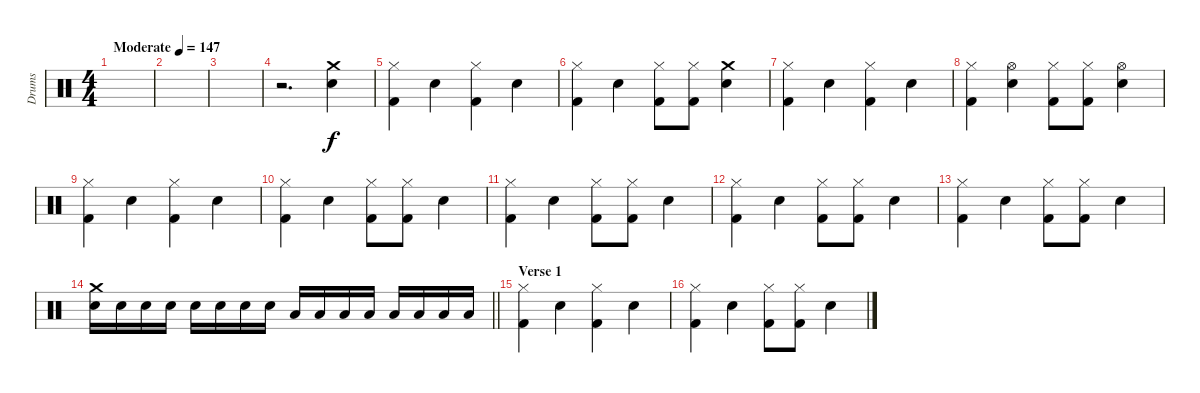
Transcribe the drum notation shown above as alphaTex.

\track ("Drums" "Drums") {instrument percussion}
\staff {score}
\articulation defaults
\ts (4 4)
\tempo (147 "Moderate")
\clef neutral
\ks c
|
|
|
r.2{d} ("Crash medium (hit)" "Electric Snare (hit)").4 |
("Hi-Hat (closed)" "Kick (hit) 2").4 "Electric Snare (hit)".4 ("Hi-Hat (closed)" "Kick (hit) 2").4 "Electric Snare (hit)".4 |
("Hi-Hat (closed)" "Kick (hit) 2").4 "Electric Snare (hit)".4 ("Hi-Hat (closed)" "Kick (hit) 2").8 ("Hi-Hat (closed)" "Kick (hit) 2").8 ("Crash medium (hit)" "Electric Snare (hit)").4 |
("Hi-Hat (closed)" "Kick (hit) 2").4 "Electric Snare (hit)".4 ("Hi-Hat (closed)" "Kick (hit) 2").4 "Electric Snare (hit)".4 |
("Hi-Hat (closed)" "Kick (hit) 2").4 ("Hi-Hat (open)" "Electric Snare (hit)").4 ("Hi-Hat (closed)" "Kick (hit) 2").8 ("Hi-Hat (closed)" "Kick (hit) 2").8 ("Hi-Hat (open)" "Electric Snare (hit)").4 |
("Hi-Hat (closed)" "Kick (hit) 2").4 "Electric Snare (hit)".4 ("Hi-Hat (closed)" "Kick (hit) 2").4 "Electric Snare (hit)".4 |
("Hi-Hat (closed)" "Kick (hit) 2").4 "Electric Snare (hit)".4 ("Hi-Hat (closed)" "Kick (hit) 2").8 ("Hi-Hat (closed)" "Kick (hit) 2").8 "Electric Snare (hit)".4 |
("Hi-Hat (closed)" "Kick (hit) 2").4 "Electric Snare (hit)".4 ("Hi-Hat (closed)" "Kick (hit) 2").8 ("Hi-Hat (closed)" "Kick (hit) 2").8 "Electric Snare (hit)".4 |
("Hi-Hat (closed)" "Kick (hit) 2").4 "Electric Snare (hit)".4 ("Hi-Hat (closed)" "Kick (hit) 2").8 ("Hi-Hat (closed)" "Kick (hit) 2").8 "Electric Snare (hit)".4 |
("Hi-Hat (closed)" "Kick (hit) 2").4 "Electric Snare (hit)".4 ("Hi-Hat (closed)" "Kick (hit) 2").8 ("Hi-Hat (closed)" "Kick (hit) 2").8 "Electric Snare (hit)".4 |
\barLineRight lightlight
("Crash medium (hit)" "Snare (hit) 2").16 "Snare (hit) 2".16 "Snare (hit) 2".16 "Snare (hit) 2".16 "Snare (hit) 2".16 "Snare (hit) 2".16 "Snare (hit) 2".16 "Snare (hit) 2".16 "Low Floor Tom (hit)".16 "Low Floor Tom (hit)".16 "Low Floor Tom (hit)".16 "Low Floor Tom (hit)".16 "Low Tom (hit)".16 "Low Tom (hit)".16 "Low Tom (hit)".16 "Low Tom (hit)".16 |
\section ("" "Verse 1")
("Hi-Hat (closed)" "Kick (hit) 2").4 "Electric Snare (hit)".4 ("Hi-Hat (closed)" "Kick (hit) 2").4 "Electric Snare (hit)".4 |
("Hi-Hat (closed)" "Kick (hit) 2").4 "Electric Snare (hit)".4 ("Hi-Hat (closed)" "Kick (hit) 2").8 ("Hi-Hat (closed)" "Kick (hit) 2").8 "Electric Snare (hit)".4
